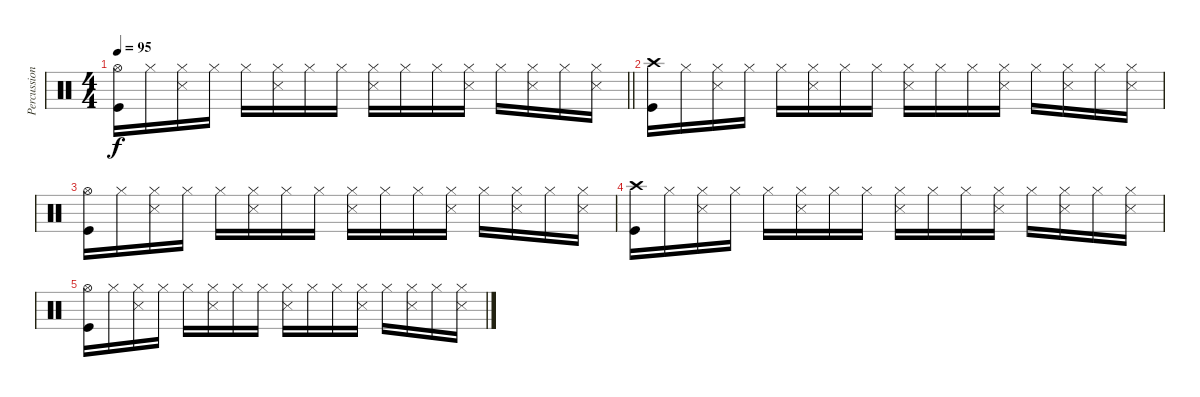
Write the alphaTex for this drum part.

\track ("Percussion" "Percussion") {instrument percussion}
\staff {score}
\articulation defaults
\ts (4 4)
\tempo 95
\clef neutral
\barLineRight lightlight
\ks c
("Hi-Hat (open)" "Kick (hit)").16{dy f} "Hi-Hat (closed)".16 ("Hi-Hat (closed)" "Snare (side stick) 3").16 "Hi-Hat (closed)".16 "Hi-Hat (closed)".16 ("Hi-Hat (closed)" "Snare (side stick) 3").16 "Hi-Hat (closed)".16 "Hi-Hat (closed)".16 ("Hi-Hat (closed)" "Snare (side stick) 3").16 "Hi-Hat (closed)".16 "Hi-Hat (closed)".16 ("Hi-Hat (closed)" "Snare (side stick) 3").16 "Hi-Hat (closed)".16 ("Hi-Hat (closed)" "Snare (side stick) 3").16 "Hi-Hat (closed)".16 ("Hi-Hat (closed)" "Snare (side stick) 3").16 |
("Crash high (hit)" "Kick (hit)").16 "Hi-Hat (closed)".16 ("Hi-Hat (closed)" "Snare (side stick) 3").16 "Hi-Hat (closed)".16 "Hi-Hat (closed)".16 ("Hi-Hat (closed)" "Snare (side stick) 3").16 "Hi-Hat (closed)".16 "Hi-Hat (closed)".16 ("Hi-Hat (closed)" "Snare (side stick) 3").16 "Hi-Hat (closed)".16 "Hi-Hat (closed)".16 ("Hi-Hat (closed)" "Snare (side stick) 3").16 "Hi-Hat (closed)".16 ("Hi-Hat (closed)" "Snare (side stick) 3").16 "Hi-Hat (closed)".16 ("Hi-Hat (closed)" "Snare (side stick) 3").16 |
("Hi-Hat (open)" "Kick (hit)").16 "Hi-Hat (closed)".16 ("Hi-Hat (closed)" "Snare (side stick) 3").16 "Hi-Hat (closed)".16 "Hi-Hat (closed)".16 ("Hi-Hat (closed)" "Snare (side stick) 3").16 "Hi-Hat (closed)".16 "Hi-Hat (closed)".16 ("Hi-Hat (closed)" "Snare (side stick) 3").16 "Hi-Hat (closed)".16 "Hi-Hat (closed)".16 ("Hi-Hat (closed)" "Snare (side stick) 3").16 "Hi-Hat (closed)".16 ("Hi-Hat (closed)" "Snare (side stick) 3").16 "Hi-Hat (closed)".16 ("Hi-Hat (closed)" "Snare (side stick) 3").16 |
("Crash high (hit)" "Kick (hit)").16 "Hi-Hat (closed)".16 ("Hi-Hat (closed)" "Snare (side stick) 3").16 "Hi-Hat (closed)".16 "Hi-Hat (closed)".16 ("Hi-Hat (closed)" "Snare (side stick) 3").16 "Hi-Hat (closed)".16 "Hi-Hat (closed)".16 ("Hi-Hat (closed)" "Snare (side stick) 3").16 "Hi-Hat (closed)".16 "Hi-Hat (closed)".16 ("Hi-Hat (closed)" "Snare (side stick) 3").16 "Hi-Hat (closed)".16 ("Hi-Hat (closed)" "Snare (side stick) 3").16 "Hi-Hat (closed)".16 ("Hi-Hat (closed)" "Snare (side stick) 3").16 |
("Hi-Hat (open)" "Kick (hit)").16 "Hi-Hat (closed)".16 ("Hi-Hat (closed)" "Snare (side stick) 3").16 "Hi-Hat (closed)".16 "Hi-Hat (closed)".16 ("Hi-Hat (closed)" "Snare (side stick) 3").16 "Hi-Hat (closed)".16 "Hi-Hat (closed)".16 ("Hi-Hat (closed)" "Snare (side stick) 3").16 "Hi-Hat (closed)".16 "Hi-Hat (closed)".16 ("Hi-Hat (closed)" "Snare (side stick) 3").16 "Hi-Hat (closed)".16 ("Hi-Hat (closed)" "Snare (side stick) 3").16 "Hi-Hat (closed)".16 ("Hi-Hat (closed)" "Snare (side stick) 3").16
